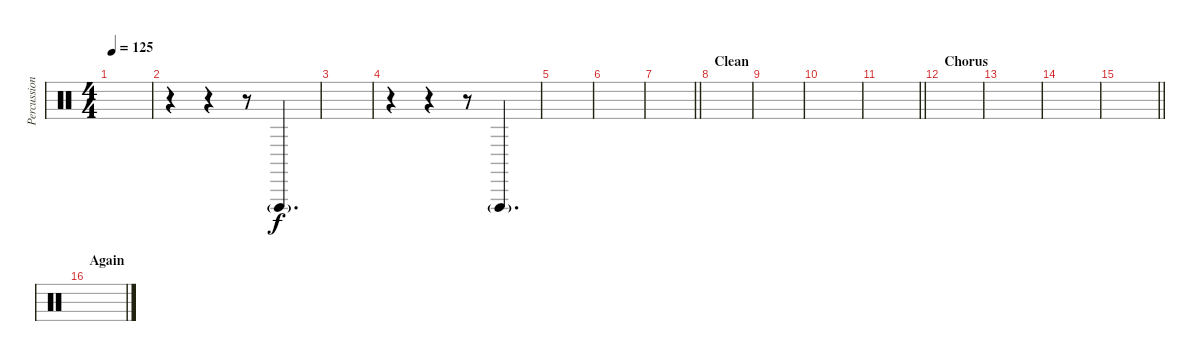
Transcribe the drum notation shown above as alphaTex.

\track ("Percussions" "Percussion") {instrument percussion}
\staff {score}
\articulation defaults
\ts (4 4)
\tempo 125
\clef neutral
\ks c
|
r.4 r.4 r.8 "Vibraslap (hit)"{g}.4{d} |
|
r.4 r.4 r.8 "Vibraslap (hit)"{g}.4{d} |
|
|
\barLineRight lightlight
|
\section ("" "Clean")
|
|
|
\barLineRight lightlight
|
\section ("" "Chorus")
|
|
|
\barLineRight lightlight
|
\section ("" "Again")
